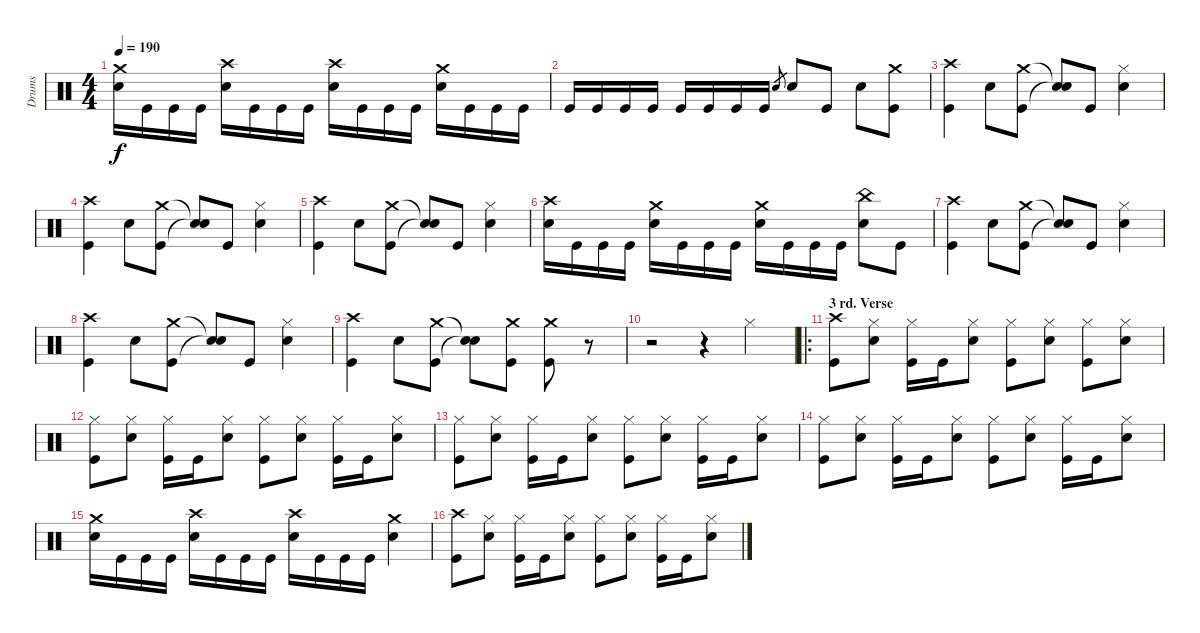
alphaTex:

\track ("Drums" "Drums") {instrument percussion}
\staff {score}
\articulation defaults
\ts (4 4)
\tempo 190
\clef neutral
\ks c
("Crash medium (hit)" "Snare (hit) 2").16{dy f} "Kick (hit)".16 "Kick (hit)".16 "Kick (hit)".16 ("Crash high (hit)" "Snare (hit) 2").16 "Kick (hit)".16 "Kick (hit)".16 "Kick (hit)".16 ("Crash high (hit)" "Snare (hit) 2").16 "Kick (hit)".16 "Kick (hit)".16 "Kick (hit)".16 ("Crash medium (hit)" "Snare (hit) 2").16 "Kick (hit)".16 "Kick (hit)".16 "Kick (hit)".16 |
"Kick (hit)".16 "Kick (hit)".16 "Kick (hit)".16 "Kick (hit)".16 "Kick (hit)".16 "Kick (hit)".16 "Kick (hit)".16 "Kick (hit)".16 "Snare (hit) 2".8{gr} "Snare (hit) 2".8 "Kick (hit)".8 "Snare (hit) 2".8 ("Crash medium (hit)" "Kick (hit)").8 |
("Crash high (hit)" "Kick (hit)").4 "Snare (hit) 2".8 ("Crash medium (hit)" "Kick (hit)").8 ("Snare (hit)"{t} "Snare (hit)"{t}).8 "Kick (hit)".8 ("Hi-Hat (closed)" "Snare (hit) 2").4 |
("Crash high (hit)" "Kick (hit)").4 "Snare (hit) 2".8 ("Crash medium (hit)" "Kick (hit)").8 ("Snare (hit)"{t} "Snare (hit)"{t}).8 "Kick (hit)".8 ("Hi-Hat (closed)" "Snare (hit) 2").4 |
("Crash high (hit)" "Kick (hit)").4 "Snare (hit) 2".8 ("Crash medium (hit)" "Kick (hit)").8 ("Snare (hit)"{t} "Snare (hit)"{t}).8 "Kick (hit)".8 ("Hi-Hat (closed)" "Snare (hit) 2").4 |
("Crash high (hit)" "Snare (hit) 2").16 "Kick (hit)".16 "Kick (hit)".16 "Kick (hit)".16 ("Crash medium (hit)" "Snare (hit) 2").16 "Kick (hit)".16 "Kick (hit)".16 "Kick (hit)".16 ("Crash medium (hit)" "Snare (hit) 2").16 "Kick (hit)".16 "Kick (hit)".16 "Kick (hit)".16 ("China (hit)" "Snare (hit) 2").8 "Kick (hit)".8 |
("Crash high (hit)" "Kick (hit)").4 "Snare (hit) 2".8 ("Crash medium (hit)" "Kick (hit)").8 ("Snare (hit)"{t} "Snare (hit)"{t}).8 "Kick (hit)".8 ("Hi-Hat (closed)" "Snare (hit) 2").4 |
("Crash high (hit)" "Kick (hit)").4 "Snare (hit) 2".8 ("Crash medium (hit)" "Kick (hit)").8 ("Snare (hit)"{t} "Snare (hit)"{t}).8 "Kick (hit)".8 ("Hi-Hat (closed)" "Snare (hit) 2").4 |
("Crash high (hit)" "Kick (hit)").4 "Snare (hit) 2".8 ("Crash medium (hit)" "Kick (hit)").8 ("Snare (hit)"{t} "Snare (hit)"{t}).8 ("Crash medium (hit)" "Kick (hit)").8 ("Crash medium (hit)" "Kick (hit)").8 r.8 |
r.2 r.4 "Hi-Hat (closed)".4 |
\ro
\section ("" "3 rd. Verse")
("Crash high (hit)" "Kick (hit)").8 ("Hi-Hat (closed)" "Snare (hit) 2").8 ("Hi-Hat (closed)" "Kick (hit)").16 "Kick (hit)".16 ("Hi-Hat (closed)" "Snare (hit) 2").8 ("Hi-Hat (closed)" "Kick (hit)").8 ("Hi-Hat (closed)" "Snare (hit) 2").8 ("Hi-Hat (closed)" "Kick (hit)").8 ("Hi-Hat (closed)" "Snare (hit) 2").8 |
("Hi-Hat (closed)" "Kick (hit)").8 ("Hi-Hat (closed)" "Snare (hit) 2").8 ("Hi-Hat (closed)" "Kick (hit)").16 "Kick (hit)".16 ("Hi-Hat (closed)" "Snare (hit) 2").8 ("Hi-Hat (closed)" "Kick (hit)").8 ("Hi-Hat (closed)" "Snare (hit) 2").8 ("Hi-Hat (closed)" "Kick (hit)").16 "Kick (hit)".16 ("Hi-Hat (closed)" "Snare (hit) 2").8 |
("Hi-Hat (closed)" "Kick (hit)").8 ("Hi-Hat (closed)" "Snare (hit) 2").8 ("Hi-Hat (closed)" "Kick (hit)").16 "Kick (hit)".16 ("Hi-Hat (closed)" "Snare (hit) 2").8 ("Hi-Hat (closed)" "Kick (hit)").8 ("Hi-Hat (closed)" "Snare (hit) 2").8 ("Hi-Hat (closed)" "Kick (hit)").16 "Kick (hit)".16 ("Hi-Hat (closed)" "Snare (hit) 2").8 |
("Hi-Hat (closed)" "Kick (hit)").8 ("Hi-Hat (closed)" "Snare (hit) 2").8 ("Hi-Hat (closed)" "Kick (hit)").16 "Kick (hit)".16 ("Hi-Hat (closed)" "Snare (hit) 2").8 ("Hi-Hat (closed)" "Kick (hit)").8 ("Hi-Hat (closed)" "Snare (hit) 2").8 ("Hi-Hat (closed)" "Kick (hit)").16 "Kick (hit)".16 ("Hi-Hat (closed)" "Snare (hit) 2").8 |
("Crash medium (hit)" "Snare (hit) 2").16 "Kick (hit)".16 "Kick (hit)".16 "Kick (hit)".16 ("Crash high (hit)" "Snare (hit) 2").16 "Kick (hit)".16 "Kick (hit)".16 "Kick (hit)".16 ("Crash high (hit)" "Snare (hit) 2").16 "Kick (hit)".16 "Kick (hit)".16 "Kick (hit)".16 ("Crash medium (hit)" "Snare (hit) 2").4 |
("Crash high (hit)" "Kick (hit)").8 ("Hi-Hat (closed)" "Snare (hit) 2").8 ("Hi-Hat (closed)" "Kick (hit)").16 "Kick (hit)".16 ("Hi-Hat (closed)" "Snare (hit) 2").8 ("Hi-Hat (closed)" "Kick (hit)").8 ("Hi-Hat (closed)" "Snare (hit) 2").8 ("Hi-Hat (closed)" "Kick (hit)").16 "Kick (hit)".16 ("Hi-Hat (closed)" "Snare (hit) 2").8
